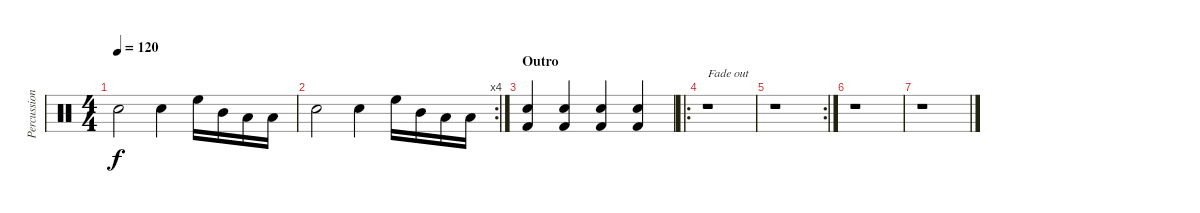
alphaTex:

\track ("Percussion" "Percussion") {instrument percussion}
\staff {score}
\articulation defaults
\ts (4 4)
\tempo 120
\clef neutral
\ks c "Snare (hit) 2".2{dy f} "Snare (hit) 2".4 "High Floor Tom (hit)".16 "Mid Tom (hit)".16 "Low Tom (hit)".16 "Low Floor Tom (hit)".16
|
\rc 4 "Snare (hit) 2".2 "Snare (hit) 2".4 "High Floor Tom (hit)".16 "Mid Tom (hit)".16 "Low Tom (hit)".16 "Low Floor Tom (hit)".16
|
\section ("" "Outro")
("Snare (hit) 2" "Kick (hit) 2").4 ("Snare (hit) 2" "Kick (hit) 2").4 ("Snare (hit) 2" "Kick (hit) 2").4 ("Snare (hit) 2" "Kick (hit) 2").4 |
\ro
r.1{txt "Fade out" volume 0} |
\rc 2
r.1 |
r.1 |
r.1
